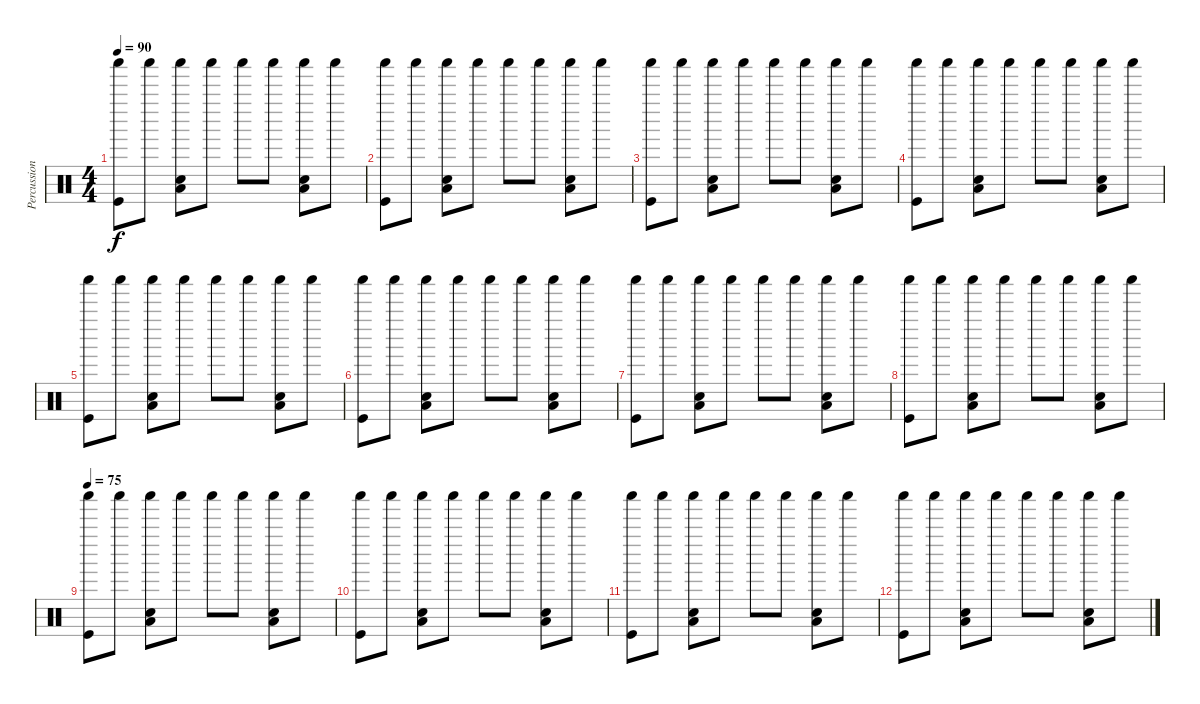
\track ("Percussions" "Percussion") {instrument percussion}
\staff {score}
\articulation defaults
\ts (4 4)
\tempo 90
\clef neutral
\ks c
("Shaker (hit)" "Kick (hit)").8{dy f} "Shaker (hit)".8 ("Shaker (hit)" "Low Tom (hit)" "Snare (hit) 2").8 "Shaker (hit)".8 "Shaker (hit)".8 "Shaker (hit)".8 ("Shaker (hit)" "Low Tom (hit)" "Snare (hit) 2").8 "Shaker (hit)".8 |
("Shaker (hit)" "Kick (hit)").8 "Shaker (hit)".8 ("Shaker (hit)" "Low Tom (hit)" "Snare (hit) 2").8 "Shaker (hit)".8 "Shaker (hit)".8 "Shaker (hit)".8 ("Shaker (hit)" "Low Tom (hit)" "Snare (hit) 2").8 "Shaker (hit)".8 |
("Shaker (hit)" "Kick (hit)").8 "Shaker (hit)".8 ("Shaker (hit)" "Low Tom (hit)" "Snare (hit) 2").8 "Shaker (hit)".8 "Shaker (hit)".8 "Shaker (hit)".8 ("Shaker (hit)" "Low Tom (hit)" "Snare (hit) 2").8 "Shaker (hit)".8 |
("Shaker (hit)" "Kick (hit)").8 "Shaker (hit)".8 ("Shaker (hit)" "Low Tom (hit)" "Snare (hit) 2").8 "Shaker (hit)".8 "Shaker (hit)".8 "Shaker (hit)".8 ("Shaker (hit)" "Low Tom (hit)" "Snare (hit) 2").8 "Shaker (hit)".8 |
("Shaker (hit)" "Kick (hit)").8 "Shaker (hit)".8 ("Shaker (hit)" "Low Tom (hit)" "Snare (hit) 2").8 "Shaker (hit)".8 "Shaker (hit)".8 "Shaker (hit)".8 ("Shaker (hit)" "Low Tom (hit)" "Snare (hit) 2").8 "Shaker (hit)".8 |
("Shaker (hit)" "Kick (hit)").8 "Shaker (hit)".8 ("Shaker (hit)" "Low Tom (hit)" "Snare (hit) 2").8 "Shaker (hit)".8 "Shaker (hit)".8 "Shaker (hit)".8 ("Shaker (hit)" "Low Tom (hit)" "Snare (hit) 2").8 "Shaker (hit)".8 |
("Shaker (hit)" "Kick (hit)").8 "Shaker (hit)".8 ("Shaker (hit)" "Low Tom (hit)" "Snare (hit) 2").8 "Shaker (hit)".8 "Shaker (hit)".8 "Shaker (hit)".8 ("Shaker (hit)" "Low Tom (hit)" "Snare (hit) 2").8 "Shaker (hit)".8 |
("Shaker (hit)" "Kick (hit)").8 "Shaker (hit)".8 ("Shaker (hit)" "Low Tom (hit)" "Snare (hit) 2").8 "Shaker (hit)".8 "Shaker (hit)".8 "Shaker (hit)".8 ("Shaker (hit)" "Low Tom (hit)" "Snare (hit) 2").8 "Shaker (hit)".8 |
\tempo 75
("Shaker (hit)" "Kick (hit)").8{volume 0} "Shaker (hit)".8 ("Shaker (hit)" "Low Tom (hit)" "Snare (hit) 2").8 "Shaker (hit)".8 "Shaker (hit)".8 "Shaker (hit)".8 ("Shaker (hit)" "Low Tom (hit)" "Snare (hit) 2").8 "Shaker (hit)".8 |
("Shaker (hit)" "Kick (hit)").8 "Shaker (hit)".8 ("Shaker (hit)" "Low Tom (hit)" "Snare (hit) 2").8 "Shaker (hit)".8 "Shaker (hit)".8 "Shaker (hit)".8 ("Shaker (hit)" "Low Tom (hit)" "Snare (hit) 2").8 "Shaker (hit)".8 |
("Shaker (hit)" "Kick (hit)").8 "Shaker (hit)".8 ("Shaker (hit)" "Low Tom (hit)" "Snare (hit) 2").8 "Shaker (hit)".8 "Shaker (hit)".8 "Shaker (hit)".8 ("Shaker (hit)" "Low Tom (hit)" "Snare (hit) 2").8 "Shaker (hit)".8 |
("Shaker (hit)" "Kick (hit)").8 "Shaker (hit)".8 ("Shaker (hit)" "Low Tom (hit)" "Snare (hit) 2").8 "Shaker (hit)".8 "Shaker (hit)".8 "Shaker (hit)".8 ("Shaker (hit)" "Low Tom (hit)" "Snare (hit) 2").8 "Shaker (hit)".8
